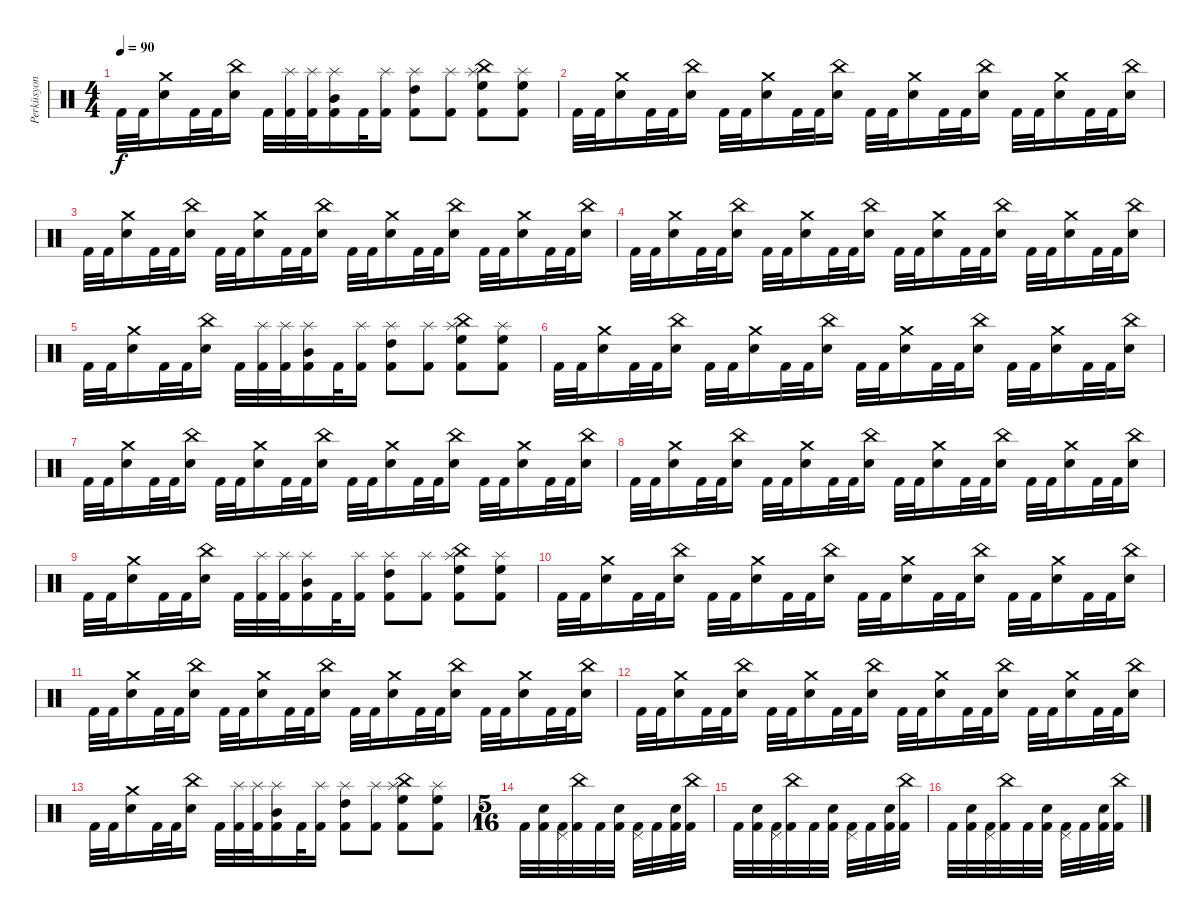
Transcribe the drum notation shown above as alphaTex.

\track ("Perküsyon" "Perküsyon") {instrument percussion}
\staff {score}
\articulation defaults
\ts (4 4)
\tempo 90
\clef neutral
\ks c "Kick (hit) 2".32{dy f} "Kick (hit) 2".32
("Crash medium (hit)" "Electric Snare (hit)").16 "Kick (hit) 2".32 "Kick (hit) 2".32 ("China (hit)" "Electric Snare (hit)").16 "Kick (hit) 2".32 ("Splash (hit)" "Kick (hit) 2").32 ("Splash (hit)" "Kick (hit) 2").32 ("Splash (hit)" "Mid Tom (hit)" "Kick (hit) 2").16 "Kick (hit) 2".32 ("Splash (hit)" "Kick (hit) 2").16 ("Splash (hit)" "High Tom (hit)" "Kick (hit) 2").8 ("Splash (hit)" "Kick (hit) 2").8 ("Splash (hit)" "High Floor Tom (hit)" "China (hit)" "Kick (hit) 2").8 ("Splash (hit)" "High Floor Tom (hit)" "Kick (hit) 2").8 |
"Kick (hit) 2".32 "Kick (hit) 2".32 ("Crash medium (hit)" "Electric Snare (hit)").16 "Kick (hit) 2".32 "Kick (hit) 2".32 ("China (hit)" "Electric Snare (hit)").16 "Kick (hit) 2".32 "Kick (hit) 2".32 ("Crash medium (hit)" "Electric Snare (hit)").16 "Kick (hit) 2".32 "Kick (hit) 2".32 ("China (hit)" "Electric Snare (hit)").16 "Kick (hit) 2".32 "Kick (hit) 2".32 ("Crash medium (hit)" "Electric Snare (hit)").16 "Kick (hit) 2".32 "Kick (hit) 2".32 ("China (hit)" "Electric Snare (hit)").16 "Kick (hit) 2".32 "Kick (hit) 2".32 ("Crash medium (hit)" "Electric Snare (hit)").16 "Kick (hit) 2".32 "Kick (hit) 2".32 ("China (hit)" "Electric Snare (hit)").16 |
"Kick (hit) 2".32 "Kick (hit) 2".32 ("Crash medium (hit)" "Electric Snare (hit)").16 "Kick (hit) 2".32 "Kick (hit) 2".32 ("China (hit)" "Electric Snare (hit)").16 "Kick (hit) 2".32 "Kick (hit) 2".32 ("Crash medium (hit)" "Electric Snare (hit)").16 "Kick (hit) 2".32 "Kick (hit) 2".32 ("China (hit)" "Electric Snare (hit)").16 "Kick (hit) 2".32 "Kick (hit) 2".32 ("Crash medium (hit)" "Electric Snare (hit)").16 "Kick (hit) 2".32 "Kick (hit) 2".32 ("China (hit)" "Electric Snare (hit)").16 "Kick (hit) 2".32 "Kick (hit) 2".32 ("Crash medium (hit)" "Electric Snare (hit)").16 "Kick (hit) 2".32 "Kick (hit) 2".32 ("China (hit)" "Electric Snare (hit)").16 |
"Kick (hit) 2".32 "Kick (hit) 2".32 ("Crash medium (hit)" "Electric Snare (hit)").16 "Kick (hit) 2".32 "Kick (hit) 2".32 ("China (hit)" "Electric Snare (hit)").16 "Kick (hit) 2".32 "Kick (hit) 2".32 ("Crash medium (hit)" "Electric Snare (hit)").16 "Kick (hit) 2".32 "Kick (hit) 2".32 ("China (hit)" "Electric Snare (hit)").16 "Kick (hit) 2".32 "Kick (hit) 2".32 ("Crash medium (hit)" "Electric Snare (hit)").16 "Kick (hit) 2".32 "Kick (hit) 2".32 ("China (hit)" "Electric Snare (hit)").16 "Kick (hit) 2".32 "Kick (hit) 2".32 ("Crash medium (hit)" "Electric Snare (hit)").16 "Kick (hit) 2".32 "Kick (hit) 2".32 ("China (hit)" "Electric Snare (hit)").16 |
"Kick (hit) 2".32 "Kick (hit) 2".32 ("Crash medium (hit)" "Electric Snare (hit)").16 "Kick (hit) 2".32 "Kick (hit) 2".32 ("China (hit)" "Electric Snare (hit)").16 "Kick (hit) 2".32 ("Splash (hit)" "Kick (hit) 2").32 ("Splash (hit)" "Kick (hit) 2").32 ("Splash (hit)" "Mid Tom (hit)" "Kick (hit) 2").16 "Kick (hit) 2".32 ("Splash (hit)" "Kick (hit) 2").16 ("Splash (hit)" "High Tom (hit)" "Kick (hit) 2").8 ("Splash (hit)" "Kick (hit) 2").8 ("Splash (hit)" "High Floor Tom (hit)" "China (hit)" "Kick (hit) 2").8 ("Splash (hit)" "High Floor Tom (hit)" "Kick (hit) 2").8 |
"Kick (hit) 2".32 "Kick (hit) 2".32 ("Crash medium (hit)" "Electric Snare (hit)").16 "Kick (hit) 2".32 "Kick (hit) 2".32 ("China (hit)" "Electric Snare (hit)").16 "Kick (hit) 2".32 "Kick (hit) 2".32 ("Crash medium (hit)" "Electric Snare (hit)").16 "Kick (hit) 2".32 "Kick (hit) 2".32 ("China (hit)" "Electric Snare (hit)").16 "Kick (hit) 2".32 "Kick (hit) 2".32 ("Crash medium (hit)" "Electric Snare (hit)").16 "Kick (hit) 2".32 "Kick (hit) 2".32 ("China (hit)" "Electric Snare (hit)").16 "Kick (hit) 2".32 "Kick (hit) 2".32 ("Crash medium (hit)" "Electric Snare (hit)").16 "Kick (hit) 2".32 "Kick (hit) 2".32 ("China (hit)" "Electric Snare (hit)").16 |
"Kick (hit) 2".32 "Kick (hit) 2".32 ("Crash medium (hit)" "Electric Snare (hit)").16 "Kick (hit) 2".32 "Kick (hit) 2".32 ("China (hit)" "Electric Snare (hit)").16 "Kick (hit) 2".32 "Kick (hit) 2".32 ("Crash medium (hit)" "Electric Snare (hit)").16 "Kick (hit) 2".32 "Kick (hit) 2".32 ("China (hit)" "Electric Snare (hit)").16 "Kick (hit) 2".32 "Kick (hit) 2".32 ("Crash medium (hit)" "Electric Snare (hit)").16 "Kick (hit) 2".32 "Kick (hit) 2".32 ("China (hit)" "Electric Snare (hit)").16 "Kick (hit) 2".32 "Kick (hit) 2".32 ("Crash medium (hit)" "Electric Snare (hit)").16 "Kick (hit) 2".32 "Kick (hit) 2".32 ("China (hit)" "Electric Snare (hit)").16 |
"Kick (hit) 2".32 "Kick (hit) 2".32 ("Crash medium (hit)" "Electric Snare (hit)").16 "Kick (hit) 2".32 "Kick (hit) 2".32 ("China (hit)" "Electric Snare (hit)").16 "Kick (hit) 2".32 "Kick (hit) 2".32 ("Crash medium (hit)" "Electric Snare (hit)").16 "Kick (hit) 2".32 "Kick (hit) 2".32 ("China (hit)" "Electric Snare (hit)").16 "Kick (hit) 2".32 "Kick (hit) 2".32 ("Crash medium (hit)" "Electric Snare (hit)").16 "Kick (hit) 2".32 "Kick (hit) 2".32 ("China (hit)" "Electric Snare (hit)").16 "Kick (hit) 2".32 "Kick (hit) 2".32 ("Crash medium (hit)" "Electric Snare (hit)").16 "Kick (hit) 2".32 "Kick (hit) 2".32 ("China (hit)" "Electric Snare (hit)").16 |
"Kick (hit) 2".32 "Kick (hit) 2".32 ("Crash medium (hit)" "Electric Snare (hit)").16 "Kick (hit) 2".32 "Kick (hit) 2".32 ("China (hit)" "Electric Snare (hit)").16 "Kick (hit) 2".32 ("Splash (hit)" "Kick (hit) 2").32 ("Splash (hit)" "Kick (hit) 2").32 ("Splash (hit)" "Mid Tom (hit)" "Kick (hit) 2").16 "Kick (hit) 2".32 ("Splash (hit)" "Kick (hit) 2").16 ("Splash (hit)" "High Tom (hit)" "Kick (hit) 2").8 ("Splash (hit)" "Kick (hit) 2").8 ("Splash (hit)" "High Floor Tom (hit)" "China (hit)" "Kick (hit) 2").8 ("Splash (hit)" "High Floor Tom (hit)" "Kick (hit) 2").8 |
"Kick (hit) 2".32 "Kick (hit) 2".32 ("Crash medium (hit)" "Electric Snare (hit)").16 "Kick (hit) 2".32 "Kick (hit) 2".32 ("China (hit)" "Electric Snare (hit)").16 "Kick (hit) 2".32 "Kick (hit) 2".32 ("Crash medium (hit)" "Electric Snare (hit)").16 "Kick (hit) 2".32 "Kick (hit) 2".32 ("China (hit)" "Electric Snare (hit)").16 "Kick (hit) 2".32 "Kick (hit) 2".32 ("Crash medium (hit)" "Electric Snare (hit)").16 "Kick (hit) 2".32 "Kick (hit) 2".32 ("China (hit)" "Electric Snare (hit)").16 "Kick (hit) 2".32 "Kick (hit) 2".32 ("Crash medium (hit)" "Electric Snare (hit)").16 "Kick (hit) 2".32 "Kick (hit) 2".32 ("China (hit)" "Electric Snare (hit)").16 |
"Kick (hit) 2".32 "Kick (hit) 2".32 ("Crash medium (hit)" "Electric Snare (hit)").16 "Kick (hit) 2".32 "Kick (hit) 2".32 ("China (hit)" "Electric Snare (hit)").16 "Kick (hit) 2".32 "Kick (hit) 2".32 ("Crash medium (hit)" "Electric Snare (hit)").16 "Kick (hit) 2".32 "Kick (hit) 2".32 ("China (hit)" "Electric Snare (hit)").16 "Kick (hit) 2".32 "Kick (hit) 2".32 ("Crash medium (hit)" "Electric Snare (hit)").16 "Kick (hit) 2".32 "Kick (hit) 2".32 ("China (hit)" "Electric Snare (hit)").16 "Kick (hit) 2".32 "Kick (hit) 2".32 ("Crash medium (hit)" "Electric Snare (hit)").16 "Kick (hit) 2".32 "Kick (hit) 2".32 ("China (hit)" "Electric Snare (hit)").16 |
"Kick (hit) 2".32 "Kick (hit) 2".32 ("Crash medium (hit)" "Electric Snare (hit)").16 "Kick (hit) 2".32 "Kick (hit) 2".32 ("China (hit)" "Electric Snare (hit)").16 "Kick (hit) 2".32 "Kick (hit) 2".32 ("Crash medium (hit)" "Electric Snare (hit)").16 "Kick (hit) 2".32 "Kick (hit) 2".32 ("China (hit)" "Electric Snare (hit)").16 "Kick (hit) 2".32 "Kick (hit) 2".32 ("Crash medium (hit)" "Electric Snare (hit)").16 "Kick (hit) 2".32 "Kick (hit) 2".32 ("China (hit)" "Electric Snare (hit)").16 "Kick (hit) 2".32 "Kick (hit) 2".32 ("Crash medium (hit)" "Electric Snare (hit)").16 "Kick (hit) 2".32 "Kick (hit) 2".32 ("China (hit)" "Electric Snare (hit)").16 |
"Kick (hit) 2".32 "Kick (hit) 2".32 ("Crash medium (hit)" "Electric Snare (hit)").16 "Kick (hit) 2".32 "Kick (hit) 2".32 ("China (hit)" "Electric Snare (hit)").16 "Kick (hit) 2".32 ("Splash (hit)" "Kick (hit) 2").32 ("Splash (hit)" "Kick (hit) 2").32 ("Splash (hit)" "Mid Tom (hit)" "Kick (hit) 2").16 "Kick (hit) 2".32 ("Splash (hit)" "Kick (hit) 2").16 ("Splash (hit)" "High Tom (hit)" "Kick (hit) 2").8 ("Splash (hit)" "Kick (hit) 2").8 ("Splash (hit)" "High Floor Tom (hit)" "China (hit)" "Kick (hit) 2").8 ("Splash (hit)" "High Floor Tom (hit)" "Kick (hit) 2").8 |
\ts (5 16)
"Kick (hit) 2".32 ("Electric Snare (hit)" "Kick (hit) 2").32 ("Pedal Hi-Hat (hit)" "Kick (hit) 2").32 ("China (hit)" "Kick (hit) 2").32 "Kick (hit) 2".32 ("Electric Snare (hit)" "Kick (hit) 2").32 ("Pedal Hi-Hat (hit)" "Kick (hit) 2").32 "Kick (hit) 2".32 ("Electric Snare (hit)" "Kick (hit) 2").32 ("China (hit)" "Kick (hit) 2").32 |
"Kick (hit) 2".32 ("Electric Snare (hit)" "Kick (hit) 2").32 ("Pedal Hi-Hat (hit)" "Kick (hit) 2").32 ("China (hit)" "Kick (hit) 2").32 "Kick (hit) 2".32 ("Electric Snare (hit)" "Kick (hit) 2").32 ("Pedal Hi-Hat (hit)" "Kick (hit) 2").32 "Kick (hit) 2".32 ("Electric Snare (hit)" "Kick (hit) 2").32 ("China (hit)" "Kick (hit) 2").32 |
"Kick (hit) 2".32 ("Electric Snare (hit)" "Kick (hit) 2").32 ("Pedal Hi-Hat (hit)" "Kick (hit) 2").32 ("China (hit)" "Kick (hit) 2").32 "Kick (hit) 2".32 ("Electric Snare (hit)" "Kick (hit) 2").32 ("Pedal Hi-Hat (hit)" "Kick (hit) 2").32 "Kick (hit) 2".32 ("Electric Snare (hit)" "Kick (hit) 2").32 ("China (hit)" "Kick (hit) 2").32
